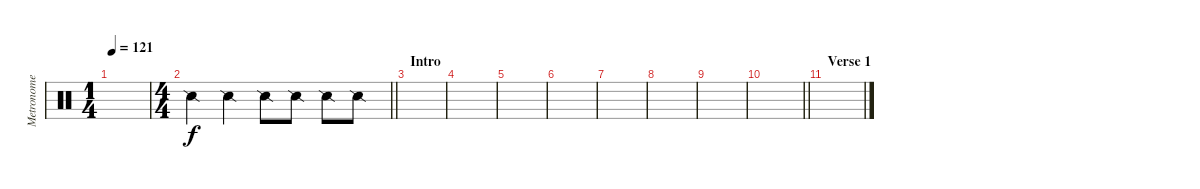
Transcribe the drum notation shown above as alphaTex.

\track ("Metronome" "Metronome") {instrument percussion}
\staff {score}
\articulation defaults
\ts (1 4)
\tempo 121
\clef neutral
\ks c
|
\ts (4 4)
\barLineRight lightlight "Snare (side stick) 2".4 "Snare (side stick) 2".4 "Snare (side stick) 2".8 "Snare (side stick) 2".8 "Snare (side stick) 2".8 "Snare (side stick) 2".8
|
\section ("" "Intro")
|
|
|
|
|
|
|
\barLineRight lightlight
|
\section ("" "Verse 1")
